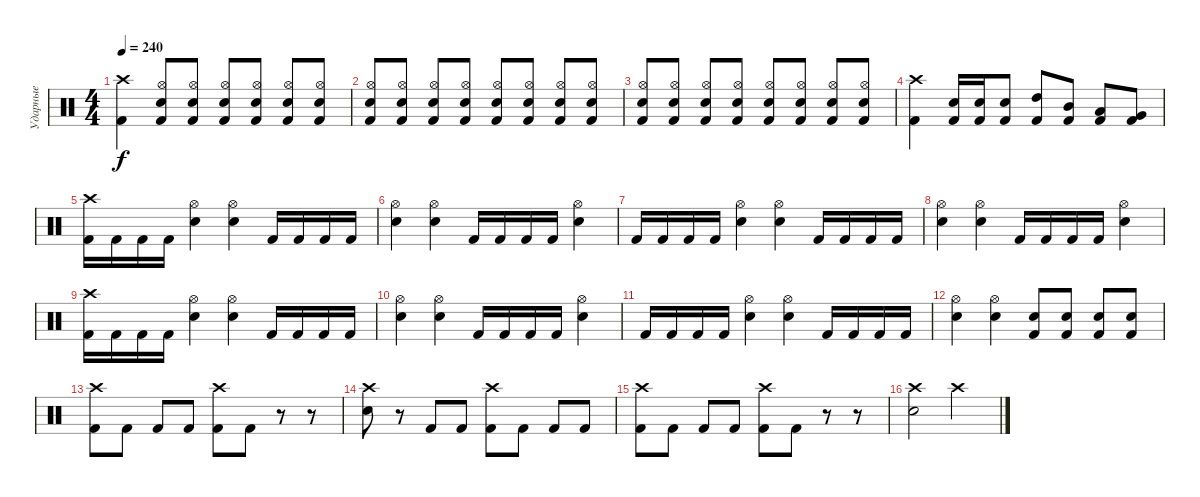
\track ("Ударные" "Ударные") {instrument percussion}
\staff {score}
\articulation defaults
\ts (4 4)
\tempo 240
\clef neutral
\ks c
("Crash high (hit)" "Kick (hit) 2").4{dy f} ("Hi-Hat (open)" "Electric Snare (hit)" "Kick (hit) 2").8 ("Hi-Hat (open)" "Electric Snare (hit)" "Kick (hit) 2").8 ("Hi-Hat (open)" "Electric Snare (hit)" "Kick (hit) 2").8 ("Hi-Hat (open)" "Electric Snare (hit)" "Kick (hit) 2").8 ("Hi-Hat (open)" "Electric Snare (hit)" "Kick (hit) 2").8 ("Hi-Hat (open)" "Electric Snare (hit)" "Kick (hit) 2").8 |
("Hi-Hat (open)" "Electric Snare (hit)" "Kick (hit) 2").8 ("Hi-Hat (open)" "Electric Snare (hit)" "Kick (hit) 2").8 ("Hi-Hat (open)" "Electric Snare (hit)" "Kick (hit) 2").8 ("Hi-Hat (open)" "Electric Snare (hit)" "Kick (hit) 2").8 ("Hi-Hat (open)" "Electric Snare (hit)" "Kick (hit) 2").8 ("Hi-Hat (open)" "Electric Snare (hit)" "Kick (hit) 2").8 ("Hi-Hat (open)" "Electric Snare (hit)" "Kick (hit) 2").8 ("Hi-Hat (open)" "Electric Snare (hit)" "Kick (hit) 2").8 |
("Hi-Hat (open)" "Electric Snare (hit)" "Kick (hit) 2").8 ("Hi-Hat (open)" "Electric Snare (hit)" "Kick (hit) 2").8 ("Hi-Hat (open)" "Electric Snare (hit)" "Kick (hit) 2").8 ("Hi-Hat (open)" "Electric Snare (hit)" "Kick (hit) 2").8 ("Hi-Hat (open)" "Electric Snare (hit)" "Kick (hit) 2").8 ("Hi-Hat (open)" "Electric Snare (hit)" "Kick (hit) 2").8 ("Hi-Hat (open)" "Electric Snare (hit)" "Kick (hit) 2").8 ("Hi-Hat (open)" "Electric Snare (hit)" "Kick (hit) 2").8 |
("Crash high (hit)" "Kick (hit) 2").4 ("Electric Snare (hit)" "Kick (hit) 2").16 ("Electric Snare (hit)" "Kick (hit) 2").16 ("Electric Snare (hit)" "Kick (hit) 2").8 ("High Tom (hit)" "Kick (hit) 2").8 ("Mid Tom (hit)" "Kick (hit) 2").8 ("Low Tom (hit)" "Kick (hit) 2").8 ("Very Low Tom (hit)" "Kick (hit) 2").8 |
("Crash high (hit)" "Kick (hit) 2").16 "Kick (hit) 2".16 "Kick (hit) 2".16 "Kick (hit) 2".16 ("Hi-Hat (open)" "Electric Snare (hit)").4 ("Hi-Hat (open)" "Electric Snare (hit)").4 "Kick (hit) 2".16 "Kick (hit) 2".16 "Kick (hit) 2".16 "Kick (hit) 2".16 |
("Hi-Hat (open)" "Electric Snare (hit)").4 ("Hi-Hat (open)" "Electric Snare (hit)").4 "Kick (hit) 2".16 "Kick (hit) 2".16 "Kick (hit) 2".16 "Kick (hit) 2".16 ("Hi-Hat (open)" "Electric Snare (hit)").4 |
"Kick (hit) 2".16 "Kick (hit) 2".16 "Kick (hit) 2".16 "Kick (hit) 2".16 ("Hi-Hat (open)" "Electric Snare (hit)").4 ("Hi-Hat (open)" "Electric Snare (hit)").4 "Kick (hit) 2".16 "Kick (hit) 2".16 "Kick (hit) 2".16 "Kick (hit) 2".16 |
("Hi-Hat (open)" "Electric Snare (hit)").4 ("Hi-Hat (open)" "Electric Snare (hit)").4 "Kick (hit) 2".16 "Kick (hit) 2".16 "Kick (hit) 2".16 "Kick (hit) 2".16 ("Hi-Hat (open)" "Electric Snare (hit)").4 |
("Crash high (hit)" "Kick (hit) 2").16 "Kick (hit) 2".16 "Kick (hit) 2".16 "Kick (hit) 2".16 ("Hi-Hat (open)" "Electric Snare (hit)").4 ("Hi-Hat (open)" "Electric Snare (hit)").4 "Kick (hit) 2".16 "Kick (hit) 2".16 "Kick (hit) 2".16 "Kick (hit) 2".16 |
("Hi-Hat (open)" "Electric Snare (hit)").4 ("Hi-Hat (open)" "Electric Snare (hit)").4 "Kick (hit) 2".16 "Kick (hit) 2".16 "Kick (hit) 2".16 "Kick (hit) 2".16 ("Hi-Hat (open)" "Electric Snare (hit)").4 |
"Kick (hit) 2".16 "Kick (hit) 2".16 "Kick (hit) 2".16 "Kick (hit) 2".16 ("Hi-Hat (open)" "Electric Snare (hit)").4 ("Hi-Hat (open)" "Electric Snare (hit)").4 "Kick (hit) 2".16 "Kick (hit) 2".16 "Kick (hit) 2".16 "Kick (hit) 2".16 |
("Hi-Hat (open)" "Electric Snare (hit)").4 ("Hi-Hat (open)" "Electric Snare (hit)").4 ("Electric Snare (hit)" "Kick (hit) 2").8 ("Electric Snare (hit)" "Kick (hit) 2").8 ("Electric Snare (hit)" "Kick (hit) 2").8 ("Electric Snare (hit)" "Kick (hit) 2").8 |
("Crash high (hit)" "Kick (hit) 2").8 "Kick (hit) 2".8 "Kick (hit) 2".8 "Kick (hit) 2".8 ("Crash high (hit)" "Kick (hit) 2").8 "Kick (hit) 2".8 r.8 r.8 |
("Crash high (hit)" "Electric Snare (hit)").8 r.8 "Kick (hit) 2".8 "Kick (hit) 2".8 ("Crash high (hit)" "Kick (hit) 2").8 "Kick (hit) 2".8 "Kick (hit) 2".8 "Kick (hit) 2".8 |
("Crash high (hit)" "Kick (hit) 2").8 "Kick (hit) 2".8 "Kick (hit) 2".8 "Kick (hit) 2".8 ("Crash high (hit)" "Kick (hit) 2").8 "Kick (hit) 2".8 r.8 r.8 |
("Crash high (hit)" "Electric Snare (hit)").2 "Crash high (hit)".2
